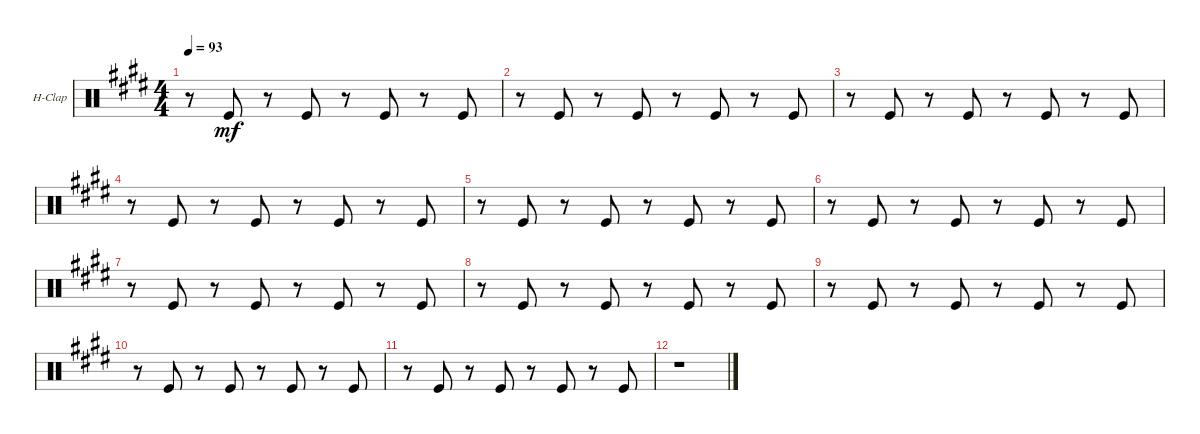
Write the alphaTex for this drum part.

\defaultSystemsLayout 4
\bracketExtendMode groupsimilarinstruments
\firstSystemTrackNameOrientation horizontal
\otherSystemsTrackNameOrientation horizontal
\track ("Hand Clap" "H-Clap") {instrument percussion}
\staff {score}
\articulation defaults
\ts (4 4)
\tempo 93
\clef neutral
\ks e
r.8{dy mf} "Kick (hit)".8 r.8 "Kick (hit)".8 r.8 "Kick (hit)".8 r.8 "Kick (hit)".8 |
r.8 "Kick (hit)".8 r.8 "Kick (hit)".8 r.8 "Kick (hit)".8 r.8 "Kick (hit)".8 |
r.8 "Kick (hit)".8 r.8 "Kick (hit)".8 r.8 "Kick (hit)".8 r.8 "Kick (hit)".8 |
r.8 "Kick (hit)".8 r.8 "Kick (hit)".8 r.8 "Kick (hit)".8 r.8 "Kick (hit)".8 |
r.8 "Kick (hit)".8 r.8 "Kick (hit)".8 r.8 "Kick (hit)".8 r.8 "Kick (hit)".8 |
r.8 "Kick (hit)".8 r.8 "Kick (hit)".8 r.8 "Kick (hit)".8 r.8 "Kick (hit)".8 |
r.8 "Kick (hit)".8 r.8 "Kick (hit)".8 r.8 "Kick (hit)".8 r.8 "Kick (hit)".8 |
r.8 "Kick (hit)".8 r.8 "Kick (hit)".8 r.8 "Kick (hit)".8 r.8 "Kick (hit)".8 |
r.8 "Kick (hit)".8 r.8 "Kick (hit)".8 r.8 "Kick (hit)".8 r.8 "Kick (hit)".8 |
r.8 "Kick (hit)".8 r.8 "Kick (hit)".8 r.8 "Kick (hit)".8 r.8 "Kick (hit)".8 |
r.8 "Kick (hit)".8 r.8 "Kick (hit)".8 r.8 "Kick (hit)".8 r.8 "Kick (hit)".8 |
r.1
